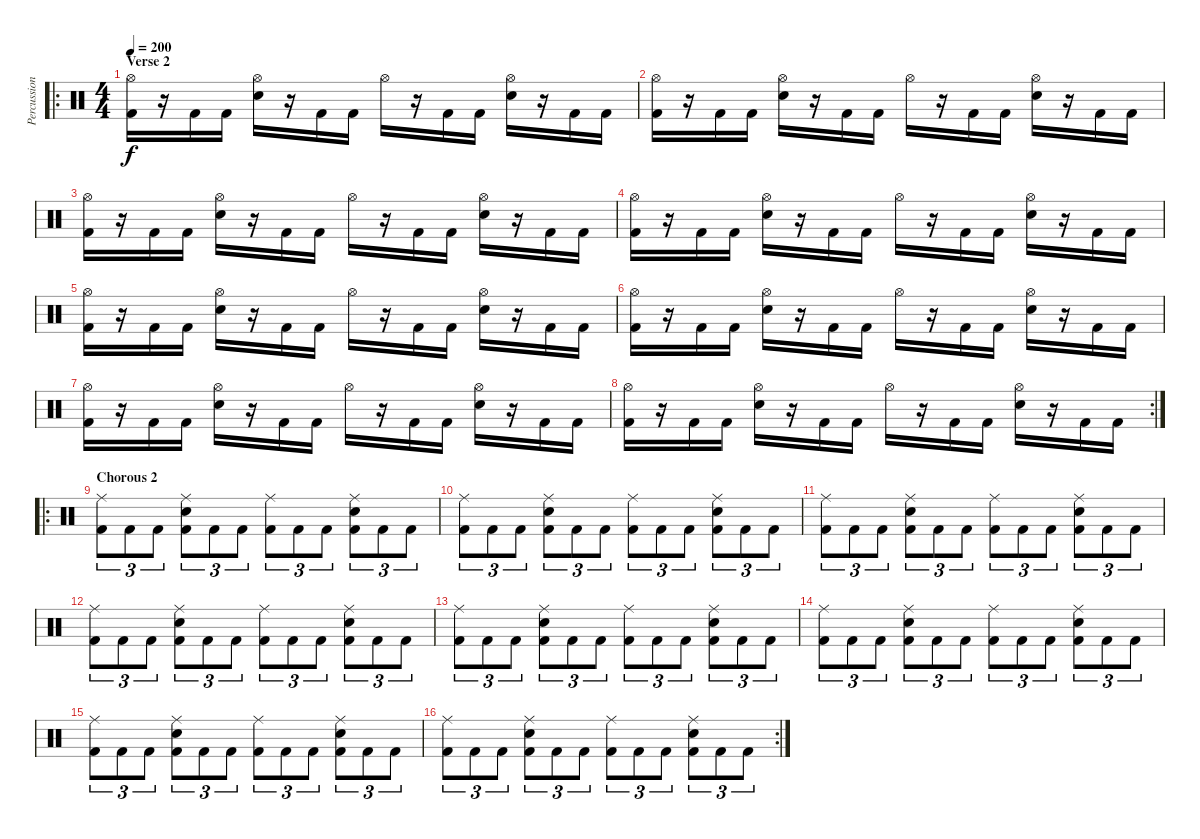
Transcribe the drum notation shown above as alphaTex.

\track ("Percussion" "Percussion") {instrument percussion}
\staff {score}
\articulation defaults
\ro
\ts (4 4)
\section ("" "Verse 2")
\tempo 200
\clef neutral
\ks c
("Hi-Hat (open)" "Kick (hit) 2").16{dy f} r.16 "Kick (hit) 2".16 "Kick (hit) 2".16 ("Hi-Hat (open)" "Electric Snare (hit)").16 r.16 "Kick (hit) 2".16 "Kick (hit) 2".16 "Hi-Hat (open)".16 r.16 "Kick (hit) 2".16 "Kick (hit) 2".16 ("Hi-Hat (open)" "Electric Snare (hit)").16 r.16 "Kick (hit) 2".16 "Kick (hit) 2".16 |
("Hi-Hat (open)" "Kick (hit) 2").16 r.16 "Kick (hit) 2".16 "Kick (hit) 2".16 ("Hi-Hat (open)" "Electric Snare (hit)").16 r.16 "Kick (hit) 2".16 "Kick (hit) 2".16 "Hi-Hat (open)".16 r.16 "Kick (hit) 2".16 "Kick (hit) 2".16 ("Hi-Hat (open)" "Electric Snare (hit)").16 r.16 "Kick (hit) 2".16 "Kick (hit) 2".16 |
("Hi-Hat (open)" "Kick (hit) 2").16 r.16 "Kick (hit) 2".16 "Kick (hit) 2".16 ("Hi-Hat (open)" "Electric Snare (hit)").16 r.16 "Kick (hit) 2".16 "Kick (hit) 2".16 "Hi-Hat (open)".16 r.16 "Kick (hit) 2".16 "Kick (hit) 2".16 ("Hi-Hat (open)" "Electric Snare (hit)").16 r.16 "Kick (hit) 2".16 "Kick (hit) 2".16 |
("Hi-Hat (open)" "Kick (hit) 2").16 r.16 "Kick (hit) 2".16 "Kick (hit) 2".16 ("Hi-Hat (open)" "Electric Snare (hit)").16 r.16 "Kick (hit) 2".16 "Kick (hit) 2".16 "Hi-Hat (open)".16 r.16 "Kick (hit) 2".16 "Kick (hit) 2".16 ("Hi-Hat (open)" "Electric Snare (hit)").16 r.16 "Kick (hit) 2".16 "Kick (hit) 2".16 |
("Hi-Hat (open)" "Kick (hit) 2").16 r.16 "Kick (hit) 2".16 "Kick (hit) 2".16 ("Hi-Hat (open)" "Electric Snare (hit)").16 r.16 "Kick (hit) 2".16 "Kick (hit) 2".16 "Hi-Hat (open)".16 r.16 "Kick (hit) 2".16 "Kick (hit) 2".16 ("Hi-Hat (open)" "Electric Snare (hit)").16 r.16 "Kick (hit) 2".16 "Kick (hit) 2".16 |
("Hi-Hat (open)" "Kick (hit) 2").16 r.16 "Kick (hit) 2".16 "Kick (hit) 2".16 ("Hi-Hat (open)" "Electric Snare (hit)").16 r.16 "Kick (hit) 2".16 "Kick (hit) 2".16 "Hi-Hat (open)".16 r.16 "Kick (hit) 2".16 "Kick (hit) 2".16 ("Hi-Hat (open)" "Electric Snare (hit)").16 r.16 "Kick (hit) 2".16 "Kick (hit) 2".16 |
("Hi-Hat (open)" "Kick (hit) 2").16 r.16 "Kick (hit) 2".16 "Kick (hit) 2".16 ("Hi-Hat (open)" "Electric Snare (hit)").16 r.16 "Kick (hit) 2".16 "Kick (hit) 2".16 "Hi-Hat (open)".16 r.16 "Kick (hit) 2".16 "Kick (hit) 2".16 ("Hi-Hat (open)" "Electric Snare (hit)").16 r.16 "Kick (hit) 2".16 "Kick (hit) 2".16 |
\rc 2
("Hi-Hat (open)" "Kick (hit) 2").16 r.16 "Kick (hit) 2".16 "Kick (hit) 2".16 ("Hi-Hat (open)" "Electric Snare (hit)").16 r.16 "Kick (hit) 2".16 "Kick (hit) 2".16 "Hi-Hat (open)".16 r.16 "Kick (hit) 2".16 "Kick (hit) 2".16 ("Hi-Hat (open)" "Electric Snare (hit)").16 r.16 "Kick (hit) 2".16 "Kick (hit) 2".16 |
\ro
\section ("" "Chorous 2")
("Ride (middle)" "Kick (hit) 2").8{tu (3 2)} "Kick (hit) 2".8{tu (3 2)} "Kick (hit) 2".8{tu (3 2)} ("Ride (middle)" "Electric Snare (hit)" "Kick (hit) 2").8{tu (3 2)} "Kick (hit) 2".8{tu (3 2)} "Kick (hit) 2".8{tu (3 2)} ("Ride (middle)" "Kick (hit) 2").8{tu (3 2)} "Kick (hit) 2".8{tu (3 2)} "Kick (hit) 2".8{tu (3 2)} ("Ride (middle)" "Electric Snare (hit)" "Kick (hit) 2").8{tu (3 2)} "Kick (hit) 2".8{tu (3 2)} "Kick (hit) 2".8{tu (3 2)} |
("Ride (middle)" "Kick (hit) 2").8{tu (3 2)} "Kick (hit) 2".8{tu (3 2)} "Kick (hit) 2".8{tu (3 2)} ("Ride (middle)" "Electric Snare (hit)" "Kick (hit) 2").8{tu (3 2)} "Kick (hit) 2".8{tu (3 2)} "Kick (hit) 2".8{tu (3 2)} ("Ride (middle)" "Kick (hit) 2").8{tu (3 2)} "Kick (hit) 2".8{tu (3 2)} "Kick (hit) 2".8{tu (3 2)} ("Ride (middle)" "Electric Snare (hit)" "Kick (hit) 2").8{tu (3 2)} "Kick (hit) 2".8{tu (3 2)} "Kick (hit) 2".8{tu (3 2)} |
("Ride (middle)" "Kick (hit) 2").8{tu (3 2)} "Kick (hit) 2".8{tu (3 2)} "Kick (hit) 2".8{tu (3 2)} ("Ride (middle)" "Electric Snare (hit)" "Kick (hit) 2").8{tu (3 2)} "Kick (hit) 2".8{tu (3 2)} "Kick (hit) 2".8{tu (3 2)} ("Ride (middle)" "Kick (hit) 2").8{tu (3 2)} "Kick (hit) 2".8{tu (3 2)} "Kick (hit) 2".8{tu (3 2)} ("Ride (middle)" "Electric Snare (hit)" "Kick (hit) 2").8{tu (3 2)} "Kick (hit) 2".8{tu (3 2)} "Kick (hit) 2".8{tu (3 2)} |
("Ride (middle)" "Kick (hit) 2").8{tu (3 2)} "Kick (hit) 2".8{tu (3 2)} "Kick (hit) 2".8{tu (3 2)} ("Ride (middle)" "Electric Snare (hit)" "Kick (hit) 2").8{tu (3 2)} "Kick (hit) 2".8{tu (3 2)} "Kick (hit) 2".8{tu (3 2)} ("Ride (middle)" "Kick (hit) 2").8{tu (3 2)} "Kick (hit) 2".8{tu (3 2)} "Kick (hit) 2".8{tu (3 2)} ("Ride (middle)" "Electric Snare (hit)" "Kick (hit) 2").8{tu (3 2)} "Kick (hit) 2".8{tu (3 2)} "Kick (hit) 2".8{tu (3 2)} |
("Ride (middle)" "Kick (hit) 2").8{tu (3 2)} "Kick (hit) 2".8{tu (3 2)} "Kick (hit) 2".8{tu (3 2)} ("Ride (middle)" "Electric Snare (hit)" "Kick (hit) 2").8{tu (3 2)} "Kick (hit) 2".8{tu (3 2)} "Kick (hit) 2".8{tu (3 2)} ("Ride (middle)" "Kick (hit) 2").8{tu (3 2)} "Kick (hit) 2".8{tu (3 2)} "Kick (hit) 2".8{tu (3 2)} ("Ride (middle)" "Electric Snare (hit)" "Kick (hit) 2").8{tu (3 2)} "Kick (hit) 2".8{tu (3 2)} "Kick (hit) 2".8{tu (3 2)} |
("Ride (middle)" "Kick (hit) 2").8{tu (3 2)} "Kick (hit) 2".8{tu (3 2)} "Kick (hit) 2".8{tu (3 2)} ("Ride (middle)" "Electric Snare (hit)" "Kick (hit) 2").8{tu (3 2)} "Kick (hit) 2".8{tu (3 2)} "Kick (hit) 2".8{tu (3 2)} ("Ride (middle)" "Kick (hit) 2").8{tu (3 2)} "Kick (hit) 2".8{tu (3 2)} "Kick (hit) 2".8{tu (3 2)} ("Ride (middle)" "Electric Snare (hit)" "Kick (hit) 2").8{tu (3 2)} "Kick (hit) 2".8{tu (3 2)} "Kick (hit) 2".8{tu (3 2)} |
("Ride (middle)" "Kick (hit) 2").8{tu (3 2)} "Kick (hit) 2".8{tu (3 2)} "Kick (hit) 2".8{tu (3 2)} ("Ride (middle)" "Electric Snare (hit)" "Kick (hit) 2").8{tu (3 2)} "Kick (hit) 2".8{tu (3 2)} "Kick (hit) 2".8{tu (3 2)} ("Ride (middle)" "Kick (hit) 2").8{tu (3 2)} "Kick (hit) 2".8{tu (3 2)} "Kick (hit) 2".8{tu (3 2)} ("Ride (middle)" "Electric Snare (hit)" "Kick (hit) 2").8{tu (3 2)} "Kick (hit) 2".8{tu (3 2)} "Kick (hit) 2".8{tu (3 2)} |
\rc 2
("Ride (middle)" "Kick (hit) 2").8{tu (3 2)} "Kick (hit) 2".8{tu (3 2)} "Kick (hit) 2".8{tu (3 2)} ("Ride (middle)" "Electric Snare (hit)" "Kick (hit) 2").8{tu (3 2)} "Kick (hit) 2".8{tu (3 2)} "Kick (hit) 2".8{tu (3 2)} ("Ride (middle)" "Kick (hit) 2").8{tu (3 2)} "Kick (hit) 2".8{tu (3 2)} "Kick (hit) 2".8{tu (3 2)} ("Ride (middle)" "Electric Snare (hit)" "Kick (hit) 2").8{tu (3 2)} "Kick (hit) 2".8{tu (3 2)} "Kick (hit) 2".8{tu (3 2)}
